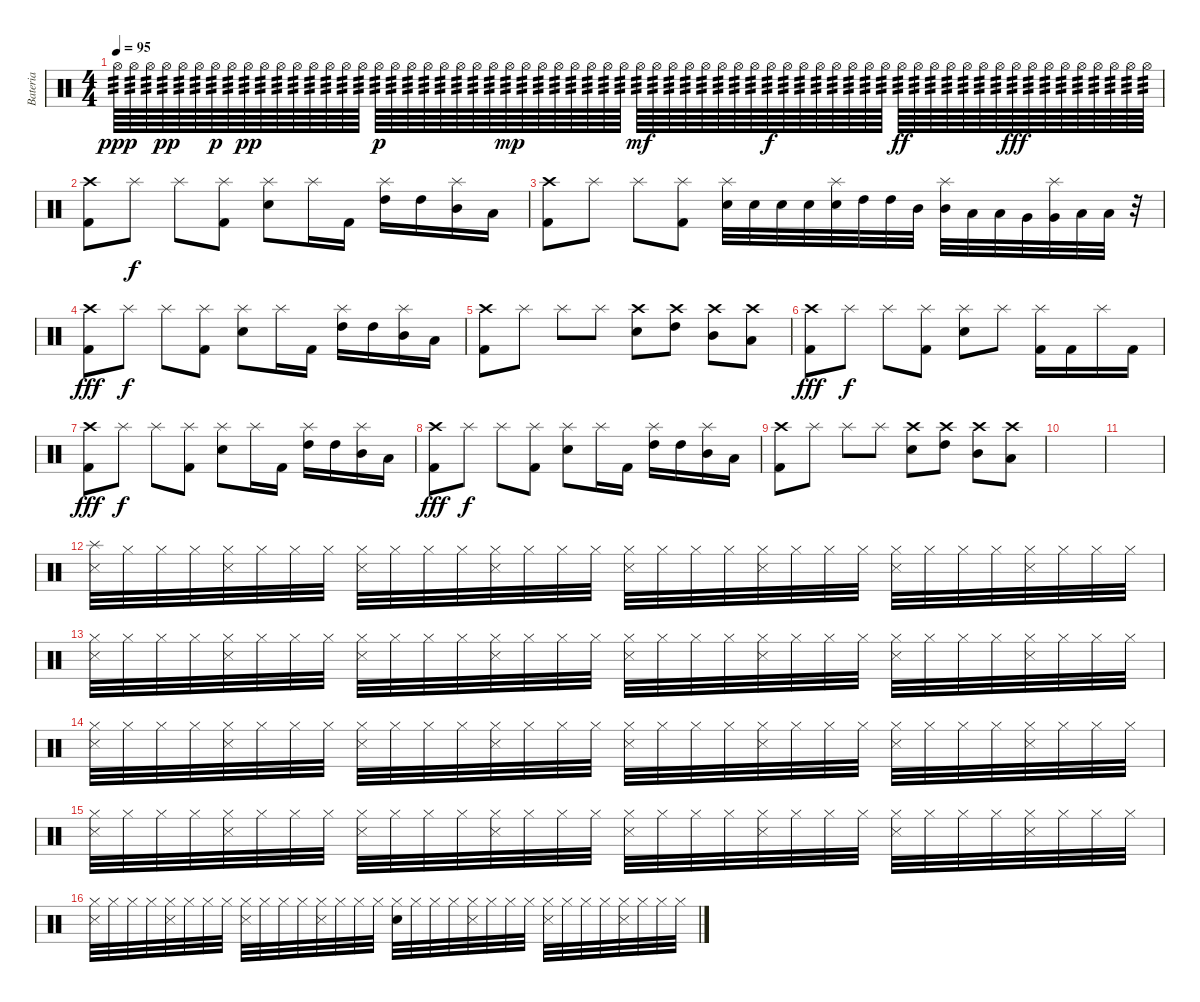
\track ("Bateria" "Bateria") {instrument percussion}
\staff {score}
\articulation defaults
\ts (4 4)
\tempo 95
\clef neutral
\ks c "Hi-Hat (open)".64{tp 3 dy ppp} "Hi-Hat (open)".64{tp 3} "Hi-Hat (open)".64{tp 3} "Hi-Hat (open)".64{tp 3 dy pp} "Hi-Hat (open)".64{tp 3} "Hi-Hat (open)".64{tp 3} "Hi-Hat (open)".64{tp 3 dy p} "Hi-Hat (open)".64{tp 3} "Hi-Hat (open)".64{tp 3 dy pp} "Hi-Hat (open)".64{tp 3} "Hi-Hat (open)".64{tp 3} "Hi-Hat (open)".64{tp 3} "Hi-Hat (open)".64{tp 3} "Hi-Hat (open)".64{tp 3} "Hi-Hat (open)".64{tp 3} "Hi-Hat (open)".64{tp 3} "Hi-Hat (open)".64{tp 3 dy p} "Hi-Hat (open)".64{tp 3} "Hi-Hat (open)".64{tp 3} "Hi-Hat (open)".64{tp 3} "Hi-Hat (open)".64{tp 3} "Hi-Hat (open)".64{tp 3} "Hi-Hat (open)".64{tp 3} "Hi-Hat (open)".64{tp 3} "Hi-Hat (open)".64{tp 3 dy mp} "Hi-Hat (open)".64{tp 3} "Hi-Hat (open)".64{tp 3} "Hi-Hat (open)".64{tp 3} "Hi-Hat (open)".64{tp 3} "Hi-Hat (open)".64{tp 3} "Hi-Hat (open)".64{tp 3} "Hi-Hat (open)".64{tp 3} "Hi-Hat (open)".64{tp 3 dy mf} "Hi-Hat (open)".64{tp 3} "Hi-Hat (open)".64{tp 3} "Hi-Hat (open)".64{tp 3} "Hi-Hat (open)".64{tp 3} "Hi-Hat (open)".64{tp 3} "Hi-Hat (open)".64{tp 3} "Hi-Hat (open)".64{tp 3} "Hi-Hat (open)".64{tp 3 dy f} "Hi-Hat (open)".64{tp 3} "Hi-Hat (open)".64{tp 3} "Hi-Hat (open)".64{tp 3} "Hi-Hat (open)".64{tp 3} "Hi-Hat (open)".64{tp 3} "Hi-Hat (open)".64{tp 3} "Hi-Hat (open)".64{tp 3} "Hi-Hat (open)".64{tp 3 dy ff} "Hi-Hat (open)".64{tp 3} "Hi-Hat (open)".64{tp 3} "Hi-Hat (open)".64{tp 3} "Hi-Hat (open)".64{tp 3} "Hi-Hat (open)".64{tp 3} "Hi-Hat (open)".64{tp 3} "Hi-Hat (open)".64{tp 3 dy fff} "Hi-Hat (open)".64{tp 3} "Hi-Hat (open)".64{tp 3} "Hi-Hat (open)".64{tp 3} "Hi-Hat (open)".64{tp 3} "Hi-Hat (open)".64{tp 3} "Hi-Hat (open)".64{tp 3} "Hi-Hat (open)".64{tp 3} "Hi-Hat (open)".64{tp 3}
|
("Crash high (hit)" "Kick (hit) 2").8 "Splash (hit)".8{dy f} "Splash (hit)".8 ("Splash (hit)" "Kick (hit) 2").8 ("Splash (hit)" "Electric Snare (hit)").8 "Splash (hit)".16 "Kick (hit) 2".16 ("Splash (hit)" "High Tom (hit)").16 "High Tom (hit)".16 ("Splash (hit)" "Mid Tom (hit)").16 "Low Tom (hit)".16 |
("Crash high (hit)" "Kick (hit) 2").8 "Splash (hit)".8 "Splash (hit)".8 ("Splash (hit)" "Kick (hit) 2").8 ("Splash (hit)" "Electric Snare (hit)").32 "Electric Snare (hit)".32 "Electric Snare (hit)".32 "Electric Snare (hit)".32 ("Splash (hit)" "Electric Snare (hit)").32 "High Tom (hit)".32 "High Tom (hit)".32 "Mid Tom (hit)".32 ("Splash (hit)" "Mid Tom (hit)").32 "Low Tom (hit)".32 "Low Tom (hit)".32 "Very Low Tom (hit)".32 ("Splash (hit)" "Very Low Tom (hit)").32 "Low Floor Tom (hit)".32 "Low Floor Tom (hit)".32 r.32 |
("Crash high (hit)" "Kick (hit) 2").8{dy fff} "Splash (hit)".8{dy f} "Splash (hit)".8 ("Splash (hit)" "Kick (hit) 2").8 ("Splash (hit)" "Electric Snare (hit)").8 "Splash (hit)".16 "Kick (hit) 2".16 ("Splash (hit)" "High Tom (hit)").16 "High Tom (hit)".16 ("Splash (hit)" "Mid Tom (hit)").16 "Low Tom (hit)".16 |
("Crash high (hit)" "Kick (hit) 2").8 "Splash (hit)".8 "Splash (hit)".8 "Splash (hit)".8 ("Crash high (hit)" "Electric Snare (hit)").8 ("Crash high (hit)" "High Tom (hit)").8 ("Crash high (hit)" "Mid Tom (hit)").8 ("Crash high (hit)" "Low Tom (hit)").8 |
("Crash high (hit)" "Kick (hit) 2").8{dy fff} "Splash (hit)".8{dy f} "Splash (hit)".8 ("Splash (hit)" "Kick (hit) 2").8 ("Splash (hit)" "Electric Snare (hit)").8 "Splash (hit)".8 ("Splash (hit)" "Kick (hit) 2").16 "Kick (hit) 2".16 "Splash (hit)".16 "Kick (hit) 2".16 |
("Crash high (hit)" "Kick (hit) 2").8{dy fff} "Splash (hit)".8{dy f} "Splash (hit)".8 ("Splash (hit)" "Kick (hit) 2").8 ("Splash (hit)" "Electric Snare (hit)").8 "Splash (hit)".16 "Kick (hit) 2".16 ("Splash (hit)" "High Tom (hit)").16 "High Tom (hit)".16 ("Splash (hit)" "Mid Tom (hit)").16 "Low Tom (hit)".16 |
("Crash high (hit)" "Kick (hit) 2").8{dy fff} "Splash (hit)".8{dy f} "Splash (hit)".8 ("Splash (hit)" "Kick (hit) 2").8 ("Splash (hit)" "Electric Snare (hit)").8 "Splash (hit)".16 "Kick (hit) 2".16 ("Splash (hit)" "High Tom (hit)").16 "High Tom (hit)".16 ("Splash (hit)" "Mid Tom (hit)").16 "Low Tom (hit)".16 |
("Crash high (hit)" "Kick (hit) 2").8 "Splash (hit)".8 "Splash (hit)".8 "Splash (hit)".8 ("Crash high (hit)" "Electric Snare (hit)").8 ("Crash high (hit)" "High Tom (hit)").8 ("Crash high (hit)" "Mid Tom (hit)").8 ("Crash high (hit)" "Low Tom (hit)").8 |
|
|
("Splash (hit)" "Snare (side stick) 3").32 "Hi-Hat (closed)".32 "Hi-Hat (closed)".32 "Hi-Hat (closed)".32 ("Hi-Hat (closed)" "Snare (side stick) 3").32 "Hi-Hat (closed)".32 "Hi-Hat (closed)".32 "Hi-Hat (closed)".32 ("Hi-Hat (closed)" "Snare (side stick) 3").32 "Hi-Hat (closed)".32 "Hi-Hat (closed)".32 "Hi-Hat (closed)".32 ("Hi-Hat (closed)" "Snare (side stick) 3").32 "Hi-Hat (closed)".32 "Hi-Hat (closed)".32 "Hi-Hat (closed)".32 ("Hi-Hat (closed)" "Snare (side stick) 3").32 "Hi-Hat (closed)".32 "Hi-Hat (closed)".32 "Hi-Hat (closed)".32 ("Hi-Hat (closed)" "Snare (side stick) 3").32 "Hi-Hat (closed)".32 "Hi-Hat (closed)".32 "Hi-Hat (closed)".32 ("Hi-Hat (closed)" "Snare (side stick) 3").32 "Hi-Hat (closed)".32 "Hi-Hat (closed)".32 "Hi-Hat (closed)".32 ("Hi-Hat (closed)" "Snare (side stick) 3").32 "Hi-Hat (closed)".32 "Hi-Hat (closed)".32 "Hi-Hat (closed)".32 |
("Hi-Hat (closed)" "Snare (side stick) 3").32 "Hi-Hat (closed)".32 "Hi-Hat (closed)".32 "Hi-Hat (closed)".32 ("Hi-Hat (closed)" "Snare (side stick) 3").32 "Hi-Hat (closed)".32 "Hi-Hat (closed)".32 "Hi-Hat (closed)".32 ("Hi-Hat (closed)" "Snare (side stick) 3").32 "Hi-Hat (closed)".32 "Hi-Hat (closed)".32 "Hi-Hat (closed)".32 ("Hi-Hat (closed)" "Snare (side stick) 3").32 "Hi-Hat (closed)".32 "Hi-Hat (closed)".32 "Hi-Hat (closed)".32 ("Hi-Hat (closed)" "Snare (side stick) 3").32 "Hi-Hat (closed)".32 "Hi-Hat (closed)".32 "Hi-Hat (closed)".32 ("Hi-Hat (closed)" "Snare (side stick) 3").32 "Hi-Hat (closed)".32 "Hi-Hat (closed)".32 "Hi-Hat (closed)".32 ("Hi-Hat (closed)" "Snare (side stick) 3").32 "Hi-Hat (closed)".32 "Hi-Hat (closed)".32 "Hi-Hat (closed)".32 ("Hi-Hat (closed)" "Snare (side stick) 3").32 "Hi-Hat (closed)".32 "Hi-Hat (closed)".32 "Hi-Hat (closed)".32 |
("Hi-Hat (closed)" "Snare (side stick) 3").32 "Hi-Hat (closed)".32 "Hi-Hat (closed)".32 "Hi-Hat (closed)".32 ("Hi-Hat (closed)" "Snare (side stick) 3").32 "Hi-Hat (closed)".32 "Hi-Hat (closed)".32 "Hi-Hat (closed)".32 ("Hi-Hat (closed)" "Snare (side stick) 3").32 "Hi-Hat (closed)".32 "Hi-Hat (closed)".32 "Hi-Hat (closed)".32 ("Hi-Hat (closed)" "Snare (side stick) 3").32 "Hi-Hat (closed)".32 "Hi-Hat (closed)".32 "Hi-Hat (closed)".32 ("Hi-Hat (closed)" "Snare (side stick) 3").32 "Hi-Hat (closed)".32 "Hi-Hat (closed)".32 "Hi-Hat (closed)".32 ("Hi-Hat (closed)" "Snare (side stick) 3").32 "Hi-Hat (closed)".32 "Hi-Hat (closed)".32 "Hi-Hat (closed)".32 ("Hi-Hat (closed)" "Snare (side stick) 3").32 "Hi-Hat (closed)".32 "Hi-Hat (closed)".32 "Hi-Hat (closed)".32 ("Hi-Hat (closed)" "Snare (side stick) 3").32 "Hi-Hat (closed)".32 "Hi-Hat (closed)".32 "Hi-Hat (closed)".32 |
("Hi-Hat (closed)" "Snare (side stick) 3").32 "Hi-Hat (closed)".32 "Hi-Hat (closed)".32 "Hi-Hat (closed)".32 ("Hi-Hat (closed)" "Snare (side stick) 3").32 "Hi-Hat (closed)".32 "Hi-Hat (closed)".32 "Hi-Hat (closed)".32 ("Hi-Hat (closed)" "Snare (side stick) 3").32 "Hi-Hat (closed)".32 "Hi-Hat (closed)".32 "Hi-Hat (closed)".32 ("Hi-Hat (closed)" "Snare (side stick) 3").32 "Hi-Hat (closed)".32 "Hi-Hat (closed)".32 "Hi-Hat (closed)".32 ("Hi-Hat (closed)" "Snare (side stick) 3").32 "Hi-Hat (closed)".32 "Hi-Hat (closed)".32 "Hi-Hat (closed)".32 ("Hi-Hat (closed)" "Snare (side stick) 3").32 "Hi-Hat (closed)".32 "Hi-Hat (closed)".32 "Hi-Hat (closed)".32 ("Hi-Hat (closed)" "Snare (side stick) 3").32 "Hi-Hat (closed)".32 "Hi-Hat (closed)".32 "Hi-Hat (closed)".32 ("Hi-Hat (closed)" "Snare (side stick) 3").32 "Hi-Hat (closed)".32 "Hi-Hat (closed)".32 "Hi-Hat (closed)".32 |
("Hi-Hat (closed)" "Snare (side stick) 3").32 "Hi-Hat (closed)".32 "Hi-Hat (closed)".32 "Hi-Hat (closed)".32 ("Hi-Hat (closed)" "Snare (side stick) 3").32 "Hi-Hat (closed)".32 "Hi-Hat (closed)".32 "Hi-Hat (closed)".32 ("Hi-Hat (closed)" "Snare (side stick) 3").32 "Hi-Hat (closed)".32 "Hi-Hat (closed)".32 "Hi-Hat (closed)".32 ("Hi-Hat (closed)" "Snare (side stick) 3").32 "Hi-Hat (closed)".32 "Hi-Hat (closed)".32 "Hi-Hat (closed)".32 ("Hi-Hat (closed)" "Electric Snare (hit)").32 "Hi-Hat (closed)".32 "Hi-Hat (closed)".32 "Hi-Hat (closed)".32 ("Hi-Hat (closed)" "Snare (side stick) 3").32 "Hi-Hat (closed)".32 "Hi-Hat (closed)".32 "Hi-Hat (closed)".32 ("Hi-Hat (closed)" "Snare (side stick) 3").32 "Hi-Hat (closed)".32 "Hi-Hat (closed)".32 "Hi-Hat (closed)".32 ("Hi-Hat (closed)" "Snare (side stick) 3").32 "Hi-Hat (closed)".32 "Hi-Hat (closed)".32 "Hi-Hat (closed)".32
